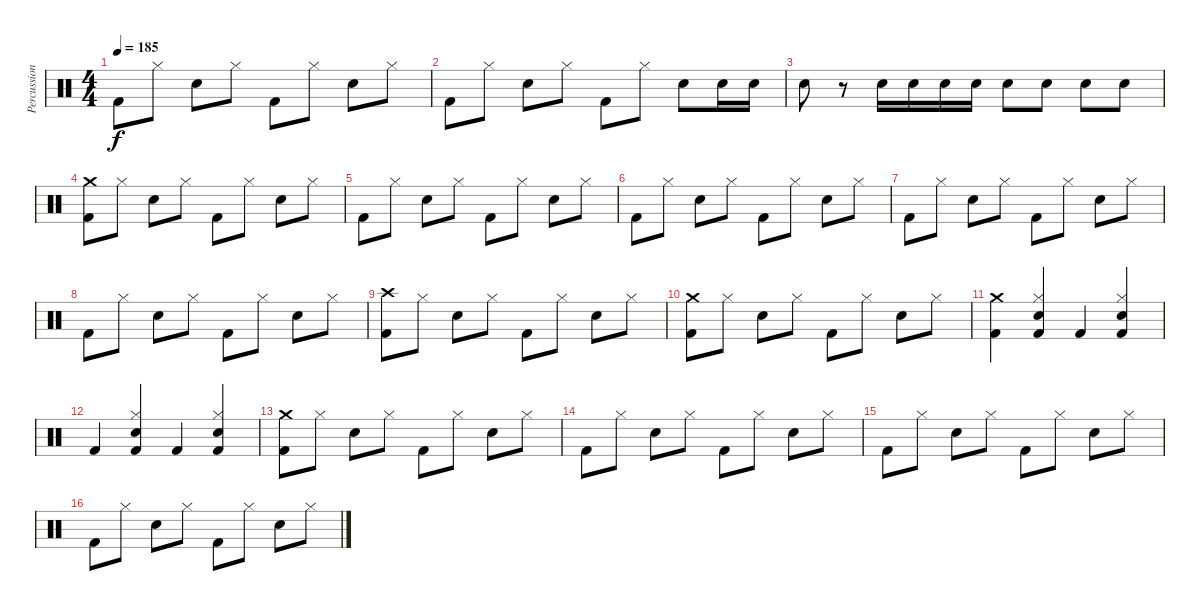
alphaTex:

\track ("Percussions" "Percussion") {instrument percussion}
\staff {score}
\articulation defaults
\ts (4 4)
\tempo 185
\clef neutral
\ks c "Kick (hit) 2".8{dy f} "Hi-Hat (closed)".8 "Snare (hit) 2".8 "Hi-Hat (closed)".8 "Kick (hit) 2".8 "Hi-Hat (closed)".8 "Snare (hit) 2".8 "Hi-Hat (closed)".8
|
"Kick (hit) 2".8 "Hi-Hat (closed)".8 "Snare (hit) 2".8 "Hi-Hat (closed)".8 "Kick (hit) 2".8 "Hi-Hat (closed)".8 "Snare (hit) 2".8 "Snare (hit) 2".16 "Snare (hit) 2".16 |
"Snare (hit) 2".8 r.8 "Snare (hit) 2".16 "Snare (hit) 2".16 "Snare (hit) 2".16 "Snare (hit) 2".16 "Snare (hit) 2".8 "Snare (hit) 2".8 "Snare (hit) 2".8 "Snare (hit) 2".8 |
("Crash medium (hit)" "Kick (hit) 2").8 "Hi-Hat (closed)".8 "Snare (hit) 2".8 "Hi-Hat (closed)".8 "Kick (hit) 2".8 "Hi-Hat (closed)".8 "Snare (hit) 2".8 "Hi-Hat (closed)".8 |
"Kick (hit) 2".8 "Hi-Hat (closed)".8 "Snare (hit) 2".8 "Hi-Hat (closed)".8 "Kick (hit) 2".8 "Hi-Hat (closed)".8 "Snare (hit) 2".8 "Hi-Hat (closed)".8 |
"Kick (hit) 2".8 "Hi-Hat (closed)".8 "Snare (hit) 2".8 "Hi-Hat (closed)".8 "Kick (hit) 2".8 "Hi-Hat (closed)".8 "Snare (hit) 2".8 "Hi-Hat (closed)".8 |
"Kick (hit) 2".8 "Hi-Hat (closed)".8 "Snare (hit) 2".8 "Hi-Hat (closed)".8 "Kick (hit) 2".8 "Hi-Hat (closed)".8 "Snare (hit) 2".8 "Hi-Hat (closed)".8 |
"Kick (hit) 2".8 "Hi-Hat (closed)".8 "Snare (hit) 2".8 "Hi-Hat (closed)".8 "Kick (hit) 2".8 "Hi-Hat (closed)".8 "Snare (hit) 2".8 "Hi-Hat (closed)".8 |
("Crash high (hit)" "Kick (hit) 2").8 "Hi-Hat (closed)".8 "Snare (hit) 2".8 "Hi-Hat (closed)".8 "Kick (hit) 2".8 "Hi-Hat (closed)".8 "Snare (hit) 2".8 "Hi-Hat (closed)".8 |
("Crash medium (hit)" "Kick (hit) 2").8 "Hi-Hat (closed)".8 "Snare (hit) 2".8 "Hi-Hat (closed)".8 "Kick (hit) 2".8 "Hi-Hat (closed)".8 "Snare (hit) 2".8 "Hi-Hat (closed)".8 |
("Crash medium (hit)" "Kick (hit) 2").4 ("Hi-Hat (closed)" "Snare (hit) 2" "Kick (hit) 2").4 "Kick (hit) 2".4 ("Hi-Hat (closed)" "Snare (hit) 2" "Kick (hit) 2").4 |
"Kick (hit) 2".4 ("Hi-Hat (closed)" "Snare (hit) 2" "Kick (hit) 2").4 "Kick (hit) 2".4 ("Hi-Hat (closed)" "Snare (hit) 2" "Kick (hit) 2").4 |
("Crash medium (hit)" "Kick (hit) 2").8 "Hi-Hat (closed)".8 "Snare (hit) 2".8 "Hi-Hat (closed)".8 "Kick (hit) 2".8 "Hi-Hat (closed)".8 "Snare (hit) 2".8 "Hi-Hat (closed)".8 |
"Kick (hit) 2".8 "Hi-Hat (closed)".8 "Snare (hit) 2".8 "Hi-Hat (closed)".8 "Kick (hit) 2".8 "Hi-Hat (closed)".8 "Snare (hit) 2".8 "Hi-Hat (closed)".8 |
"Kick (hit) 2".8 "Hi-Hat (closed)".8 "Snare (hit) 2".8 "Hi-Hat (closed)".8 "Kick (hit) 2".8 "Hi-Hat (closed)".8 "Snare (hit) 2".8 "Hi-Hat (closed)".8 |
"Kick (hit) 2".8 "Hi-Hat (closed)".8 "Snare (hit) 2".8 "Hi-Hat (closed)".8 "Kick (hit) 2".8 "Hi-Hat (closed)".8 "Snare (hit) 2".8 "Hi-Hat (closed)".8
